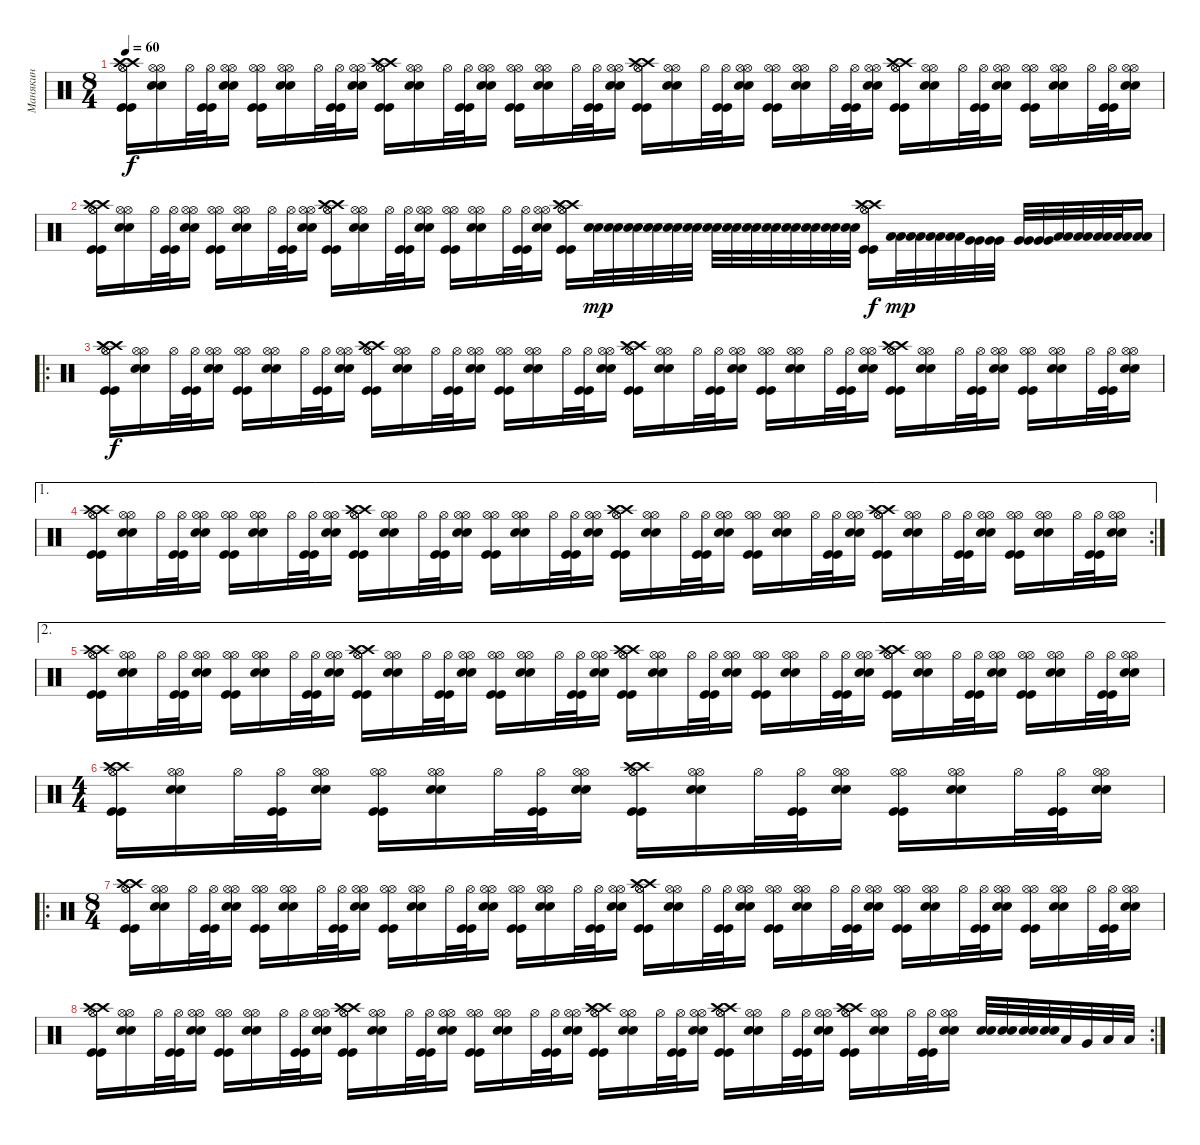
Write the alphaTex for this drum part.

\track ("Манякин" "Манякин") {instrument percussion}
\staff {score}
\articulation defaults
\ts (8 4)
\tempo 60
\clef neutral
\ks c
("Hi-Hat (open)" "Kick (hit)" "Kick (hit)" "Hi-Hat (open)" "Crash high (hit)" "Crash high (hit)").16{dy f} ("Hi-Hat (open)" "Electric Snare (hit)" "Electric Snare (hit)" "Hi-Hat (open)").16 "Hi-Hat (open)".32 ("Kick (hit)" "Kick (hit)" "Hi-Hat (open)").32 ("Hi-Hat (open)" "Electric Snare (hit)" "Electric Snare (hit)" "Hi-Hat (open)").16 ("Hi-Hat (open)" "Kick (hit)" "Kick (hit)" "Hi-Hat (open)").16 ("Hi-Hat (open)" "Electric Snare (hit)" "Electric Snare (hit)" "Hi-Hat (open)").16 "Hi-Hat (open)".32 ("Kick (hit)" "Kick (hit)" "Hi-Hat (open)").32 ("Hi-Hat (open)" "Electric Snare (hit)" "Electric Snare (hit)" "Hi-Hat (open)").16 ("Hi-Hat (open)" "Kick (hit)" "Kick (hit)" "Hi-Hat (open)" "Crash high (hit)" "Crash high (hit)").16 ("Hi-Hat (open)" "Electric Snare (hit)" "Electric Snare (hit)" "Hi-Hat (open)").16 "Hi-Hat (open)".32 ("Kick (hit)" "Kick (hit)" "Hi-Hat (open)").32 ("Hi-Hat (open)" "Electric Snare (hit)" "Electric Snare (hit)" "Hi-Hat (open)").16 ("Hi-Hat (open)" "Kick (hit)" "Kick (hit)" "Hi-Hat (open)").16 ("Hi-Hat (open)" "Electric Snare (hit)" "Electric Snare (hit)" "Hi-Hat (open)").16 "Hi-Hat (open)".32 ("Kick (hit)" "Kick (hit)" "Hi-Hat (open)").32 ("Hi-Hat (open)" "Electric Snare (hit)" "Electric Snare (hit)" "Hi-Hat (open)").16 ("Hi-Hat (open)" "Kick (hit)" "Kick (hit)" "Hi-Hat (open)" "Crash high (hit)" "Crash high (hit)").16 ("Hi-Hat (open)" "Electric Snare (hit)" "Electric Snare (hit)" "Hi-Hat (open)").16 "Hi-Hat (open)".32 ("Kick (hit)" "Kick (hit)" "Hi-Hat (open)").32 ("Hi-Hat (open)" "Electric Snare (hit)" "Electric Snare (hit)" "Hi-Hat (open)").16 ("Hi-Hat (open)" "Kick (hit)" "Kick (hit)" "Hi-Hat (open)").16 ("Hi-Hat (open)" "Electric Snare (hit)" "Electric Snare (hit)" "Hi-Hat (open)").16 "Hi-Hat (open)".32 ("Kick (hit)" "Kick (hit)" "Hi-Hat (open)").32 ("Hi-Hat (open)" "Electric Snare (hit)" "Electric Snare (hit)" "Hi-Hat (open)").16 ("Hi-Hat (open)" "Kick (hit)" "Kick (hit)" "Hi-Hat (open)" "Crash high (hit)" "Crash high (hit)").16 ("Hi-Hat (open)" "Electric Snare (hit)" "Electric Snare (hit)" "Hi-Hat (open)").16 "Hi-Hat (open)".32 ("Kick (hit)" "Kick (hit)" "Hi-Hat (open)").32 ("Hi-Hat (open)" "Electric Snare (hit)" "Electric Snare (hit)" "Hi-Hat (open)").16 ("Hi-Hat (open)" "Kick (hit)" "Kick (hit)" "Hi-Hat (open)").16 ("Hi-Hat (open)" "Electric Snare (hit)" "Electric Snare (hit)" "Hi-Hat (open)").16 "Hi-Hat (open)".32 ("Kick (hit)" "Kick (hit)" "Hi-Hat (open)").32 ("Hi-Hat (open)" "Electric Snare (hit)" "Electric Snare (hit)" "Hi-Hat (open)").16 |
("Hi-Hat (open)" "Kick (hit)" "Kick (hit)" "Hi-Hat (open)" "Crash high (hit)" "Crash high (hit)").16 ("Hi-Hat (open)" "Electric Snare (hit)" "Electric Snare (hit)" "Hi-Hat (open)").16 "Hi-Hat (open)".32 ("Kick (hit)" "Kick (hit)" "Hi-Hat (open)").32 ("Hi-Hat (open)" "Electric Snare (hit)" "Electric Snare (hit)" "Hi-Hat (open)").16 ("Hi-Hat (open)" "Kick (hit)" "Kick (hit)" "Hi-Hat (open)").16 ("Hi-Hat (open)" "Electric Snare (hit)" "Electric Snare (hit)" "Hi-Hat (open)").16 "Hi-Hat (open)".32 ("Kick (hit)" "Kick (hit)" "Hi-Hat (open)").32 ("Hi-Hat (open)" "Electric Snare (hit)" "Electric Snare (hit)" "Hi-Hat (open)").16 ("Hi-Hat (open)" "Kick (hit)" "Kick (hit)" "Hi-Hat (open)" "Crash high (hit)" "Crash high (hit)").16 ("Hi-Hat (open)" "Electric Snare (hit)" "Electric Snare (hit)" "Hi-Hat (open)").16 "Hi-Hat (open)".32 ("Kick (hit)" "Kick (hit)" "Hi-Hat (open)").32 ("Hi-Hat (open)" "Electric Snare (hit)" "Electric Snare (hit)" "Hi-Hat (open)").16 ("Hi-Hat (open)" "Kick (hit)" "Kick (hit)" "Hi-Hat (open)").16 ("Hi-Hat (open)" "Electric Snare (hit)" "Electric Snare (hit)" "Hi-Hat (open)").16 "Hi-Hat (open)".32 ("Kick (hit)" "Kick (hit)" "Hi-Hat (open)").32 ("Hi-Hat (open)" "Electric Snare (hit)" "Electric Snare (hit)" "Hi-Hat (open)").16 ("Kick (hit)" "Kick (hit)" "Crash high (hit)" "Crash high (hit)" "Hi-Hat (open)" "Hi-Hat (open)").16 ("Electric Snare (hit)" "Electric Snare (hit)").32{dy mp} ("Electric Snare (hit)" "Electric Snare (hit)").32 ("Electric Snare (hit)" "Electric Snare (hit)").32 ("Electric Snare (hit)" "Electric Snare (hit)").32 ("Electric Snare (hit)" "Electric Snare (hit)").32 ("Electric Snare (hit)" "Electric Snare (hit)").32 ("Electric Snare (hit)" "Electric Snare (hit)").32 ("Electric Snare (hit)" "Electric Snare (hit)").32 ("Electric Snare (hit)" "Electric Snare (hit)").32 ("Electric Snare (hit)" "Electric Snare (hit)").32 ("Electric Snare (hit)" "Electric Snare (hit)").32 ("Electric Snare (hit)" "Electric Snare (hit)").32 ("Electric Snare (hit)" "Electric Snare (hit)").32 ("Electric Snare (hit)" "Electric Snare (hit)").32 ("Kick (hit)" "Kick (hit)" "Crash high (hit)" "Crash high (hit)" "Hi-Hat (open)" "Hi-Hat (open)").16{dy f} ("Low Tom (hit)" "Low Tom (hit)").32{dy mp} ("Low Tom (hit)" "Low Tom (hit)").32 ("Low Tom (hit)" "Low Tom (hit)").32 ("Low Tom (hit)" "Low Tom (hit)").32 ("Very Low Tom (hit)" "Very Low Tom (hit)").32 ("Very Low Tom (hit)" "Very Low Tom (hit)").32 ("Very Low Tom (hit)" "Very Low Tom (hit)").32 ("Very Low Tom (hit)" "Very Low Tom (hit)").32 ("Low Floor Tom (hit)" "Low Floor Tom (hit)").32 ("Low Floor Tom (hit)" "Low Floor Tom (hit)").32 ("Low Floor Tom (hit)" "Low Floor Tom (hit)").32 ("Low Floor Tom (hit)" "Low Floor Tom (hit)").32 ("Low Floor Tom (hit)" "Low Floor Tom (hit)").16 |
\ro
("Hi-Hat (open)" "Kick (hit)" "Kick (hit)" "Hi-Hat (open)" "Crash high (hit)" "Crash high (hit)").16{dy f} ("Hi-Hat (open)" "Electric Snare (hit)" "Electric Snare (hit)" "Hi-Hat (open)").16 "Hi-Hat (open)".32 ("Kick (hit)" "Kick (hit)" "Hi-Hat (open)").32 ("Hi-Hat (open)" "Electric Snare (hit)" "Electric Snare (hit)" "Hi-Hat (open)").16 ("Hi-Hat (open)" "Kick (hit)" "Kick (hit)" "Hi-Hat (open)").16 ("Hi-Hat (open)" "Electric Snare (hit)" "Electric Snare (hit)" "Hi-Hat (open)").16 "Hi-Hat (open)".32 ("Kick (hit)" "Kick (hit)" "Hi-Hat (open)").32 ("Hi-Hat (open)" "Electric Snare (hit)" "Electric Snare (hit)" "Hi-Hat (open)").16 ("Hi-Hat (open)" "Kick (hit)" "Kick (hit)" "Hi-Hat (open)" "Crash high (hit)" "Crash high (hit)").16 ("Hi-Hat (open)" "Electric Snare (hit)" "Electric Snare (hit)" "Hi-Hat (open)").16 "Hi-Hat (open)".32 ("Kick (hit)" "Kick (hit)" "Hi-Hat (open)").32 ("Hi-Hat (open)" "Electric Snare (hit)" "Electric Snare (hit)" "Hi-Hat (open)").16 ("Hi-Hat (open)" "Kick (hit)" "Kick (hit)" "Hi-Hat (open)").16 ("Hi-Hat (open)" "Electric Snare (hit)" "Electric Snare (hit)" "Hi-Hat (open)").16 "Hi-Hat (open)".32 ("Kick (hit)" "Kick (hit)" "Hi-Hat (open)").32 ("Hi-Hat (open)" "Electric Snare (hit)" "Electric Snare (hit)" "Hi-Hat (open)").16 ("Hi-Hat (open)" "Kick (hit)" "Kick (hit)" "Hi-Hat (open)" "Crash high (hit)" "Crash high (hit)").16 ("Hi-Hat (open)" "Electric Snare (hit)" "Electric Snare (hit)" "Hi-Hat (open)").16 "Hi-Hat (open)".32 ("Kick (hit)" "Kick (hit)" "Hi-Hat (open)").32 ("Hi-Hat (open)" "Electric Snare (hit)" "Electric Snare (hit)" "Hi-Hat (open)").16 ("Hi-Hat (open)" "Kick (hit)" "Kick (hit)" "Hi-Hat (open)").16 ("Hi-Hat (open)" "Electric Snare (hit)" "Electric Snare (hit)" "Hi-Hat (open)").16 "Hi-Hat (open)".32 ("Kick (hit)" "Kick (hit)" "Hi-Hat (open)").32 ("Hi-Hat (open)" "Electric Snare (hit)" "Electric Snare (hit)" "Hi-Hat (open)").16 ("Hi-Hat (open)" "Kick (hit)" "Kick (hit)" "Hi-Hat (open)" "Crash high (hit)" "Crash high (hit)").16 ("Hi-Hat (open)" "Electric Snare (hit)" "Electric Snare (hit)" "Hi-Hat (open)").16 "Hi-Hat (open)".32 ("Kick (hit)" "Kick (hit)" "Hi-Hat (open)").32 ("Hi-Hat (open)" "Electric Snare (hit)" "Electric Snare (hit)" "Hi-Hat (open)").16 ("Hi-Hat (open)" "Kick (hit)" "Kick (hit)" "Hi-Hat (open)").16 ("Hi-Hat (open)" "Electric Snare (hit)" "Electric Snare (hit)" "Hi-Hat (open)").16 "Hi-Hat (open)".32 ("Kick (hit)" "Kick (hit)" "Hi-Hat (open)").32 ("Hi-Hat (open)" "Electric Snare (hit)" "Electric Snare (hit)" "Hi-Hat (open)").16 |
\ae 1
\rc 2
("Hi-Hat (open)" "Kick (hit)" "Kick (hit)" "Hi-Hat (open)" "Crash high (hit)" "Crash high (hit)").16 ("Hi-Hat (open)" "Electric Snare (hit)" "Electric Snare (hit)" "Hi-Hat (open)").16 "Hi-Hat (open)".32 ("Kick (hit)" "Kick (hit)" "Hi-Hat (open)").32 ("Hi-Hat (open)" "Electric Snare (hit)" "Electric Snare (hit)" "Hi-Hat (open)").16 ("Hi-Hat (open)" "Kick (hit)" "Kick (hit)" "Hi-Hat (open)").16 ("Hi-Hat (open)" "Electric Snare (hit)" "Electric Snare (hit)" "Hi-Hat (open)").16 "Hi-Hat (open)".32 ("Kick (hit)" "Kick (hit)" "Hi-Hat (open)").32 ("Hi-Hat (open)" "Electric Snare (hit)" "Electric Snare (hit)" "Hi-Hat (open)").16 ("Hi-Hat (open)" "Kick (hit)" "Kick (hit)" "Hi-Hat (open)" "Crash high (hit)" "Crash high (hit)").16 ("Hi-Hat (open)" "Electric Snare (hit)" "Electric Snare (hit)" "Hi-Hat (open)").16 "Hi-Hat (open)".32 ("Kick (hit)" "Kick (hit)" "Hi-Hat (open)").32 ("Hi-Hat (open)" "Electric Snare (hit)" "Electric Snare (hit)" "Hi-Hat (open)").16 ("Hi-Hat (open)" "Kick (hit)" "Kick (hit)" "Hi-Hat (open)").16 ("Hi-Hat (open)" "Electric Snare (hit)" "Electric Snare (hit)" "Hi-Hat (open)").16 "Hi-Hat (open)".32 ("Kick (hit)" "Kick (hit)" "Hi-Hat (open)").32 ("Hi-Hat (open)" "Electric Snare (hit)" "Electric Snare (hit)" "Hi-Hat (open)").16 ("Hi-Hat (open)" "Kick (hit)" "Kick (hit)" "Hi-Hat (open)" "Crash high (hit)" "Crash high (hit)").16 ("Hi-Hat (open)" "Electric Snare (hit)" "Electric Snare (hit)" "Hi-Hat (open)").16 "Hi-Hat (open)".32 ("Kick (hit)" "Kick (hit)" "Hi-Hat (open)").32 ("Hi-Hat (open)" "Electric Snare (hit)" "Electric Snare (hit)" "Hi-Hat (open)").16 ("Hi-Hat (open)" "Kick (hit)" "Kick (hit)" "Hi-Hat (open)").16 ("Hi-Hat (open)" "Electric Snare (hit)" "Electric Snare (hit)" "Hi-Hat (open)").16 "Hi-Hat (open)".32 ("Kick (hit)" "Kick (hit)" "Hi-Hat (open)").32 ("Hi-Hat (open)" "Electric Snare (hit)" "Electric Snare (hit)" "Hi-Hat (open)").16 ("Hi-Hat (open)" "Kick (hit)" "Kick (hit)" "Hi-Hat (open)" "Crash high (hit)" "Crash high (hit)").16 ("Hi-Hat (open)" "Electric Snare (hit)" "Electric Snare (hit)" "Hi-Hat (open)").16 "Hi-Hat (open)".32 ("Kick (hit)" "Kick (hit)" "Hi-Hat (open)").32 ("Hi-Hat (open)" "Electric Snare (hit)" "Electric Snare (hit)" "Hi-Hat (open)").16 ("Hi-Hat (open)" "Kick (hit)" "Kick (hit)" "Hi-Hat (open)").16 ("Hi-Hat (open)" "Electric Snare (hit)" "Electric Snare (hit)" "Hi-Hat (open)").16 "Hi-Hat (open)".32 ("Kick (hit)" "Kick (hit)" "Hi-Hat (open)").32 ("Hi-Hat (open)" "Electric Snare (hit)" "Electric Snare (hit)" "Hi-Hat (open)").16 |
\ae 2
("Hi-Hat (open)" "Kick (hit)" "Kick (hit)" "Hi-Hat (open)" "Crash high (hit)" "Crash high (hit)").16 ("Hi-Hat (open)" "Electric Snare (hit)" "Electric Snare (hit)" "Hi-Hat (open)").16 "Hi-Hat (open)".32 ("Kick (hit)" "Kick (hit)" "Hi-Hat (open)").32 ("Hi-Hat (open)" "Electric Snare (hit)" "Electric Snare (hit)" "Hi-Hat (open)").16 ("Hi-Hat (open)" "Kick (hit)" "Kick (hit)" "Hi-Hat (open)").16 ("Hi-Hat (open)" "Electric Snare (hit)" "Electric Snare (hit)" "Hi-Hat (open)").16 "Hi-Hat (open)".32 ("Kick (hit)" "Kick (hit)" "Hi-Hat (open)").32 ("Hi-Hat (open)" "Electric Snare (hit)" "Electric Snare (hit)" "Hi-Hat (open)").16 ("Hi-Hat (open)" "Kick (hit)" "Kick (hit)" "Hi-Hat (open)" "Crash high (hit)" "Crash high (hit)").16 ("Hi-Hat (open)" "Electric Snare (hit)" "Electric Snare (hit)" "Hi-Hat (open)").16 "Hi-Hat (open)".32 ("Kick (hit)" "Kick (hit)" "Hi-Hat (open)").32 ("Hi-Hat (open)" "Electric Snare (hit)" "Electric Snare (hit)" "Hi-Hat (open)").16 ("Hi-Hat (open)" "Kick (hit)" "Kick (hit)" "Hi-Hat (open)").16 ("Hi-Hat (open)" "Electric Snare (hit)" "Electric Snare (hit)" "Hi-Hat (open)").16 "Hi-Hat (open)".32 ("Kick (hit)" "Kick (hit)" "Hi-Hat (open)").32 ("Hi-Hat (open)" "Electric Snare (hit)" "Electric Snare (hit)" "Hi-Hat (open)").16 ("Hi-Hat (open)" "Kick (hit)" "Kick (hit)" "Hi-Hat (open)" "Crash high (hit)" "Crash high (hit)").16 ("Hi-Hat (open)" "Electric Snare (hit)" "Electric Snare (hit)" "Hi-Hat (open)").16 "Hi-Hat (open)".32 ("Kick (hit)" "Kick (hit)" "Hi-Hat (open)").32 ("Hi-Hat (open)" "Electric Snare (hit)" "Electric Snare (hit)" "Hi-Hat (open)").16 ("Hi-Hat (open)" "Kick (hit)" "Kick (hit)" "Hi-Hat (open)").16 ("Hi-Hat (open)" "Electric Snare (hit)" "Electric Snare (hit)" "Hi-Hat (open)").16 "Hi-Hat (open)".32 ("Kick (hit)" "Kick (hit)" "Hi-Hat (open)").32 ("Hi-Hat (open)" "Electric Snare (hit)" "Electric Snare (hit)" "Hi-Hat (open)").16 ("Hi-Hat (open)" "Kick (hit)" "Kick (hit)" "Hi-Hat (open)" "Crash high (hit)" "Crash high (hit)").16 ("Hi-Hat (open)" "Electric Snare (hit)" "Electric Snare (hit)" "Hi-Hat (open)").16 "Hi-Hat (open)".32 ("Kick (hit)" "Kick (hit)" "Hi-Hat (open)").32 ("Hi-Hat (open)" "Electric Snare (hit)" "Electric Snare (hit)" "Hi-Hat (open)").16 ("Hi-Hat (open)" "Kick (hit)" "Kick (hit)" "Hi-Hat (open)").16 ("Hi-Hat (open)" "Electric Snare (hit)" "Electric Snare (hit)" "Hi-Hat (open)").16 "Hi-Hat (open)".32 ("Kick (hit)" "Kick (hit)" "Hi-Hat (open)").32 ("Hi-Hat (open)" "Electric Snare (hit)" "Electric Snare (hit)" "Hi-Hat (open)").16 |
\ts (4 4)
("Hi-Hat (open)" "Kick (hit)" "Kick (hit)" "Hi-Hat (open)" "Crash high (hit)" "Crash high (hit)").16 ("Hi-Hat (open)" "Electric Snare (hit)" "Electric Snare (hit)" "Hi-Hat (open)").16 "Hi-Hat (open)".32 ("Kick (hit)" "Kick (hit)" "Hi-Hat (open)").32 ("Hi-Hat (open)" "Electric Snare (hit)" "Electric Snare (hit)" "Hi-Hat (open)").16 ("Hi-Hat (open)" "Kick (hit)" "Kick (hit)" "Hi-Hat (open)").16 ("Hi-Hat (open)" "Electric Snare (hit)" "Electric Snare (hit)" "Hi-Hat (open)").16 "Hi-Hat (open)".32 ("Kick (hit)" "Kick (hit)" "Hi-Hat (open)").32 ("Hi-Hat (open)" "Electric Snare (hit)" "Electric Snare (hit)" "Hi-Hat (open)").16 ("Hi-Hat (open)" "Kick (hit)" "Kick (hit)" "Hi-Hat (open)" "Crash high (hit)" "Crash high (hit)").16 ("Hi-Hat (open)" "Electric Snare (hit)" "Electric Snare (hit)" "Hi-Hat (open)").16 "Hi-Hat (open)".32 ("Kick (hit)" "Kick (hit)" "Hi-Hat (open)").32 ("Hi-Hat (open)" "Electric Snare (hit)" "Electric Snare (hit)" "Hi-Hat (open)").16 ("Hi-Hat (open)" "Kick (hit)" "Kick (hit)" "Hi-Hat (open)").16 ("Hi-Hat (open)" "Electric Snare (hit)" "Electric Snare (hit)" "Hi-Hat (open)").16 "Hi-Hat (open)".32 ("Kick (hit)" "Kick (hit)" "Hi-Hat (open)").32 ("Hi-Hat (open)" "Electric Snare (hit)" "Electric Snare (hit)" "Hi-Hat (open)").16 |
\ro
\ts (8 4)
("Hi-Hat (open)" "Kick (hit)" "Kick (hit)" "Hi-Hat (open)" "Crash high (hit)" "Crash high (hit)").16 ("Hi-Hat (open)" "Electric Snare (hit)" "Electric Snare (hit)" "Hi-Hat (open)").16 "Hi-Hat (open)".32 ("Kick (hit)" "Kick (hit)" "Hi-Hat (open)").32 ("Hi-Hat (open)" "Electric Snare (hit)" "Electric Snare (hit)" "Hi-Hat (open)").16 ("Hi-Hat (open)" "Kick (hit)" "Kick (hit)" "Hi-Hat (open)").16 ("Hi-Hat (open)" "Electric Snare (hit)" "Electric Snare (hit)" "Hi-Hat (open)").16 "Hi-Hat (open)".32 ("Kick (hit)" "Kick (hit)" "Hi-Hat (open)").32 ("Hi-Hat (open)" "Electric Snare (hit)" "Electric Snare (hit)" "Hi-Hat (open)").16 ("Hi-Hat (open)" "Kick (hit)" "Kick (hit)" "Hi-Hat (open)").16 ("Hi-Hat (open)" "Electric Snare (hit)" "Electric Snare (hit)" "Hi-Hat (open)").16 "Hi-Hat (open)".32 ("Kick (hit)" "Kick (hit)" "Hi-Hat (open)").32 ("Hi-Hat (open)" "Electric Snare (hit)" "Electric Snare (hit)" "Hi-Hat (open)").16 ("Hi-Hat (open)" "Kick (hit)" "Kick (hit)" "Hi-Hat (open)").16 ("Hi-Hat (open)" "Electric Snare (hit)" "Electric Snare (hit)" "Hi-Hat (open)").16 "Hi-Hat (open)".32 ("Kick (hit)" "Kick (hit)" "Hi-Hat (open)").32 ("Hi-Hat (open)" "Electric Snare (hit)" "Electric Snare (hit)" "Hi-Hat (open)").16 ("Hi-Hat (open)" "Kick (hit)" "Kick (hit)" "Hi-Hat (open)" "Crash high (hit)" "Crash high (hit)").16 ("Hi-Hat (open)" "Electric Snare (hit)" "Electric Snare (hit)" "Hi-Hat (open)").16 "Hi-Hat (open)".32 ("Kick (hit)" "Kick (hit)" "Hi-Hat (open)").32 ("Hi-Hat (open)" "Electric Snare (hit)" "Electric Snare (hit)" "Hi-Hat (open)").16 ("Hi-Hat (open)" "Kick (hit)" "Kick (hit)" "Hi-Hat (open)").16 ("Hi-Hat (open)" "Electric Snare (hit)" "Electric Snare (hit)" "Hi-Hat (open)").16 "Hi-Hat (open)".32 ("Kick (hit)" "Kick (hit)" "Hi-Hat (open)").32 ("Hi-Hat (open)" "Electric Snare (hit)" "Electric Snare (hit)" "Hi-Hat (open)").16 ("Hi-Hat (open)" "Kick (hit)" "Kick (hit)" "Hi-Hat (open)").16 ("Hi-Hat (open)" "Electric Snare (hit)" "Electric Snare (hit)" "Hi-Hat (open)").16 "Hi-Hat (open)".32 ("Kick (hit)" "Kick (hit)" "Hi-Hat (open)").32 ("Hi-Hat (open)" "Electric Snare (hit)" "Electric Snare (hit)" "Hi-Hat (open)").16 ("Hi-Hat (open)" "Kick (hit)" "Kick (hit)" "Hi-Hat (open)").16 ("Hi-Hat (open)" "Electric Snare (hit)" "Electric Snare (hit)" "Hi-Hat (open)").16 "Hi-Hat (open)".32 ("Kick (hit)" "Kick (hit)" "Hi-Hat (open)").32 ("Hi-Hat (open)" "Electric Snare (hit)" "Electric Snare (hit)" "Hi-Hat (open)").16 |
\rc 2
("Hi-Hat (open)" "Kick (hit)" "Kick (hit)" "Hi-Hat (open)" "Crash high (hit)" "Crash high (hit)").16 ("Hi-Hat (open)" "Electric Snare (hit)" "Electric Snare (hit)" "Hi-Hat (open)").16 "Hi-Hat (open)".32 ("Kick (hit)" "Kick (hit)" "Hi-Hat (open)").32 ("Hi-Hat (open)" "Electric Snare (hit)" "Electric Snare (hit)" "Hi-Hat (open)").16 ("Hi-Hat (open)" "Kick (hit)" "Kick (hit)" "Hi-Hat (open)").16 ("Hi-Hat (open)" "Electric Snare (hit)" "Electric Snare (hit)" "Hi-Hat (open)").16 "Hi-Hat (open)".32 ("Kick (hit)" "Kick (hit)" "Hi-Hat (open)").32 ("Hi-Hat (open)" "Electric Snare (hit)" "Electric Snare (hit)" "Hi-Hat (open)").16 ("Hi-Hat (open)" "Kick (hit)" "Kick (hit)" "Hi-Hat (open)" "Crash high (hit)" "Crash high (hit)").16 ("Hi-Hat (open)" "Electric Snare (hit)" "Electric Snare (hit)" "Hi-Hat (open)").16 "Hi-Hat (open)".32 ("Kick (hit)" "Kick (hit)" "Hi-Hat (open)").32 ("Hi-Hat (open)" "Electric Snare (hit)" "Electric Snare (hit)" "Hi-Hat (open)").16 ("Hi-Hat (open)" "Kick (hit)" "Kick (hit)" "Hi-Hat (open)").16 ("Hi-Hat (open)" "Electric Snare (hit)" "Electric Snare (hit)" "Hi-Hat (open)").16 "Hi-Hat (open)".32 ("Kick (hit)" "Kick (hit)" "Hi-Hat (open)").32 ("Hi-Hat (open)" "Electric Snare (hit)" "Electric Snare (hit)" "Hi-Hat (open)").16 ("Hi-Hat (open)" "Kick (hit)" "Kick (hit)" "Hi-Hat (open)" "Crash high (hit)" "Crash high (hit)").16 ("Hi-Hat (open)" "Electric Snare (hit)" "Electric Snare (hit)" "Hi-Hat (open)").16 "Hi-Hat (open)".32 ("Kick (hit)" "Kick (hit)" "Hi-Hat (open)").32 ("Hi-Hat (open)" "Electric Snare (hit)" "Electric Snare (hit)" "Hi-Hat (open)").16 ("Hi-Hat (open)" "Kick (hit)" "Kick (hit)" "Hi-Hat (open)" "Crash high (hit)" "Crash high (hit)").16 ("Hi-Hat (open)" "Electric Snare (hit)" "Electric Snare (hit)" "Hi-Hat (open)").16 "Hi-Hat (open)".32 ("Kick (hit)" "Kick (hit)" "Hi-Hat (open)").32 ("Hi-Hat (open)" "Electric Snare (hit)" "Electric Snare (hit)" "Hi-Hat (open)").16 ("Hi-Hat (open)" "Kick (hit)" "Kick (hit)" "Hi-Hat (open)" "Crash high (hit)" "Crash high (hit)").16 ("Hi-Hat (open)" "Electric Snare (hit)" "Electric Snare (hit)" "Hi-Hat (open)").16 "Hi-Hat (open)".32 ("Kick (hit)" "Kick (hit)" "Hi-Hat (open)").32 ("Hi-Hat (open)" "Electric Snare (hit)" "Electric Snare (hit)" "Hi-Hat (open)").16 ("Electric Snare (hit)" "Electric Snare (hit)").32 ("Electric Snare (hit)" "Electric Snare (hit)").32 ("Electric Snare (hit)" "Electric Snare (hit)").32 ("Electric Snare (hit)" "Electric Snare (hit)").32 "Low Tom (hit)".32 "Very Low Tom (hit)".32 "Low Floor Tom (hit)".32 "Low Floor Tom (hit)".32
